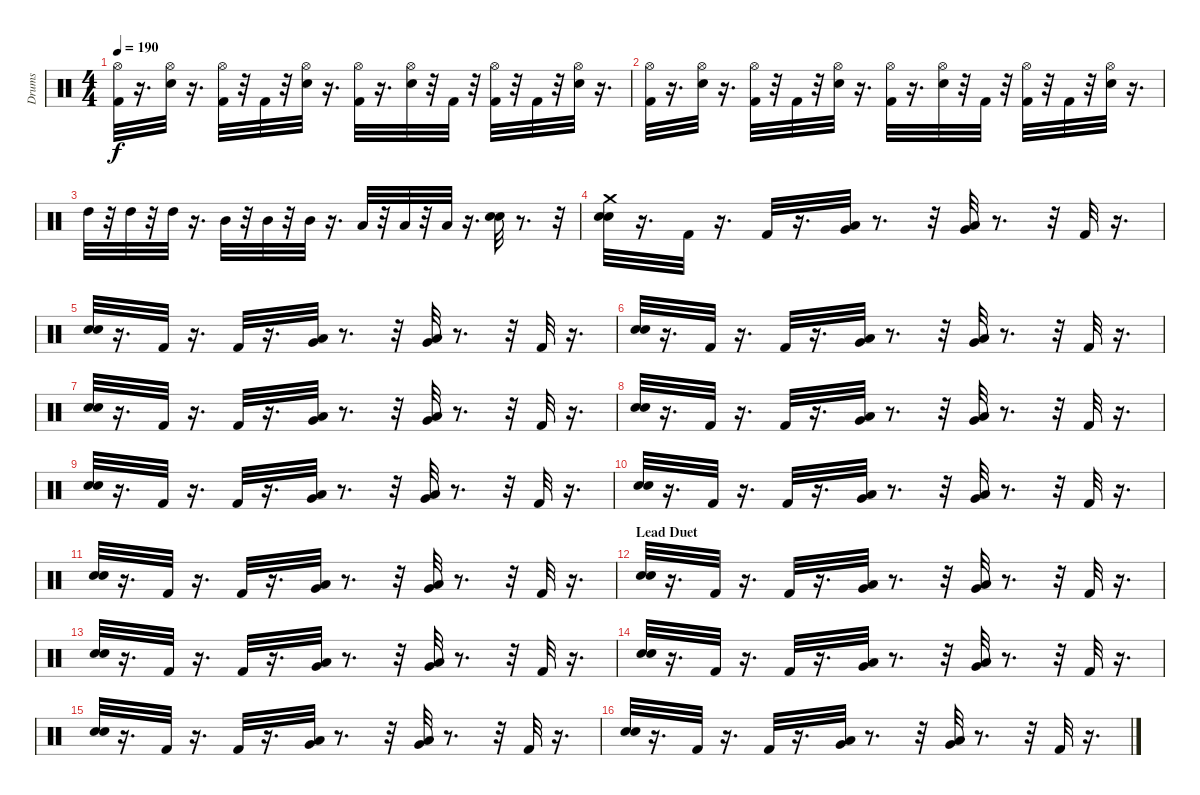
\track ("Drums" "Drums") {instrument percussion}
\staff {score}
\articulation defaults
\ts (4 4)
\tempo 190
\clef neutral
\ks c
("Kick (hit) 2" "Hi-Hat (open)").32{dy f} r.16{d} ("Snare (hit) 2" "Hi-Hat (open)").32 r.16{d} ("Hi-Hat (open)" "Kick (hit) 2").32 r.32 "Kick (hit) 2".32 r.32 ("Hi-Hat (open)" "Snare (hit) 2").32 r.16{d} ("Hi-Hat (open)" "Kick (hit) 2").32 r.16{d} ("Hi-Hat (open)" "Snare (hit) 2").32 r.32 "Kick (hit) 2".32 r.32 ("Hi-Hat (open)" "Kick (hit) 2").32 r.32 "Kick (hit) 2".32 r.32 ("Hi-Hat (open)" "Snare (hit) 2").32 r.16{d} |
("Kick (hit) 2" "Hi-Hat (open)").32 r.16{d} ("Snare (hit) 2" "Hi-Hat (open)").32 r.16{d} ("Hi-Hat (open)" "Kick (hit) 2").32 r.32 "Kick (hit) 2".32 r.32 ("Hi-Hat (open)" "Snare (hit) 2").32 r.16{d} ("Kick (hit) 2" "Hi-Hat (open)").32 r.16{d} ("Snare (hit) 2" "Hi-Hat (open)").32 r.32 "Kick (hit) 2".32 r.32 ("Hi-Hat (open)" "Kick (hit) 2").32 r.32 "Kick (hit) 2".32 r.32 ("Snare (hit) 2" "Hi-Hat (open)").32 r.16{d} |
"High Tom (hit)".32 r.32 "High Tom (hit)".32 r.32 "High Tom (hit)".32 r.16{d} "Mid Tom (hit)".32 r.32 "Mid Tom (hit)".32 r.32 "Mid Tom (hit)".32 r.16{d} "Low Tom (hit)".32 r.32 "Low Tom (hit)".32 r.32 "Low Tom (hit)".32 r.16{d} ("Electric Snare (hit)" "Snare (hit) 2").32 r.8{d} r.32 |
("Crash medium (hit)" "Snare (hit) 2" "Electric Snare (hit)").32 r.16{d} "Kick (hit) 2".32 r.16{d} "Kick (hit) 2".32 r.16{d} ("Low Tom (hit)" "Very Low Tom (hit)").32 r.8{d} r.32 ("Very Low Tom (hit)" "Low Floor Tom (hit)").32 r.8{d} r.32 "Kick (hit) 2".32 r.16{d} |
("Snare (hit) 2" "Electric Snare (hit)").32 r.16{d} "Kick (hit) 2".32 r.16{d} "Kick (hit) 2".32 r.16{d} ("Low Tom (hit)" "Very Low Tom (hit)").32 r.8{d} r.32 ("Low Floor Tom (hit)" "Very Low Tom (hit)").32 r.8{d} r.32 "Kick (hit) 2".32 r.16{d} |
("Snare (hit) 2" "Electric Snare (hit)").32 r.16{d} "Kick (hit) 2".32 r.16{d} "Kick (hit) 2".32 r.16{d} ("Very Low Tom (hit)" "Low Tom (hit)").32 r.8{d} r.32 ("Low Floor Tom (hit)" "Very Low Tom (hit)").32 r.8{d} r.32 "Kick (hit) 2".32 r.16{d} |
("Snare (hit) 2" "Electric Snare (hit)").32 r.16{d} "Kick (hit) 2".32 r.16{d} "Kick (hit) 2".32 r.16{d} ("Low Tom (hit)" "Very Low Tom (hit)").32 r.8{d} r.32 ("Very Low Tom (hit)" "Low Floor Tom (hit)").32 r.8{d} r.32 "Kick (hit) 2".32 r.16{d} |
("Snare (hit) 2" "Electric Snare (hit)").32 r.16{d} "Kick (hit) 2".32 r.16{d} "Kick (hit) 2".32 r.16{d} ("Very Low Tom (hit)" "Low Tom (hit)").32 r.8{d} r.32 ("Very Low Tom (hit)" "Low Floor Tom (hit)").32 r.8{d} r.32 "Kick (hit) 2".32 r.16{d} |
("Snare (hit) 2" "Electric Snare (hit)").32 r.16{d} "Kick (hit) 2".32 r.16{d} "Kick (hit) 2".32 r.16{d} ("Very Low Tom (hit)" "Low Tom (hit)").32 r.8{d} r.32 ("Very Low Tom (hit)" "Low Floor Tom (hit)").32 r.8{d} r.32 "Kick (hit) 2".32 r.16{d} |
("Snare (hit) 2" "Electric Snare (hit)").32 r.16{d} "Kick (hit) 2".32 r.16{d} "Kick (hit) 2".32 r.16{d} ("Low Tom (hit)" "Very Low Tom (hit)").32 r.8{d} r.32 ("Low Floor Tom (hit)" "Very Low Tom (hit)").32 r.8{d} r.32 "Kick (hit) 2".32 r.16{d} |
("Snare (hit) 2" "Electric Snare (hit)").32 r.16{d} "Kick (hit) 2".32 r.16{d} "Kick (hit) 2".32 r.16{d} ("Very Low Tom (hit)" "Low Tom (hit)").32 r.8{d} r.32 ("Very Low Tom (hit)" "Low Floor Tom (hit)").32 r.8{d} r.32 "Kick (hit) 2".32 r.16{d} |
\section ("" "Lead Duet")
("Snare (hit) 2" "Electric Snare (hit)").32 r.16{d} "Kick (hit) 2".32 r.16{d} "Kick (hit) 2".32 r.16{d} ("Low Tom (hit)" "Very Low Tom (hit)").32 r.8{d} r.32 ("Low Floor Tom (hit)" "Very Low Tom (hit)").32 r.8{d} r.32 "Kick (hit) 2".32 r.16{d} |
("Snare (hit) 2" "Electric Snare (hit)").32 r.16{d} "Kick (hit) 2".32 r.16{d} "Kick (hit) 2".32 r.16{d} ("Very Low Tom (hit)" "Low Tom (hit)").32 r.8{d} r.32 ("Low Floor Tom (hit)" "Very Low Tom (hit)").32 r.8{d} r.32 "Kick (hit) 2".32 r.16{d} |
("Snare (hit) 2" "Electric Snare (hit)").32 r.16{d} "Kick (hit) 2".32 r.16{d} "Kick (hit) 2".32 r.16{d} ("Very Low Tom (hit)" "Low Tom (hit)").32 r.8{d} r.32 ("Low Floor Tom (hit)" "Very Low Tom (hit)").32 r.8{d} r.32 "Kick (hit) 2".32 r.16{d} |
("Snare (hit) 2" "Electric Snare (hit)").32 r.16{d} "Kick (hit) 2".32 r.16{d} "Kick (hit) 2".32 r.16{d} ("Low Tom (hit)" "Very Low Tom (hit)").32 r.8{d} r.32 ("Low Floor Tom (hit)" "Very Low Tom (hit)").32 r.8{d} r.32 "Kick (hit) 2".32 r.16{d} |
("Snare (hit) 2" "Electric Snare (hit)").32 r.16{d} "Kick (hit) 2".32 r.16{d} "Kick (hit) 2".32 r.16{d} ("Low Tom (hit)" "Very Low Tom (hit)").32 r.8{d} r.32 ("Very Low Tom (hit)" "Low Floor Tom (hit)").32 r.8{d} r.32 "Kick (hit) 2".32 r.16{d}
